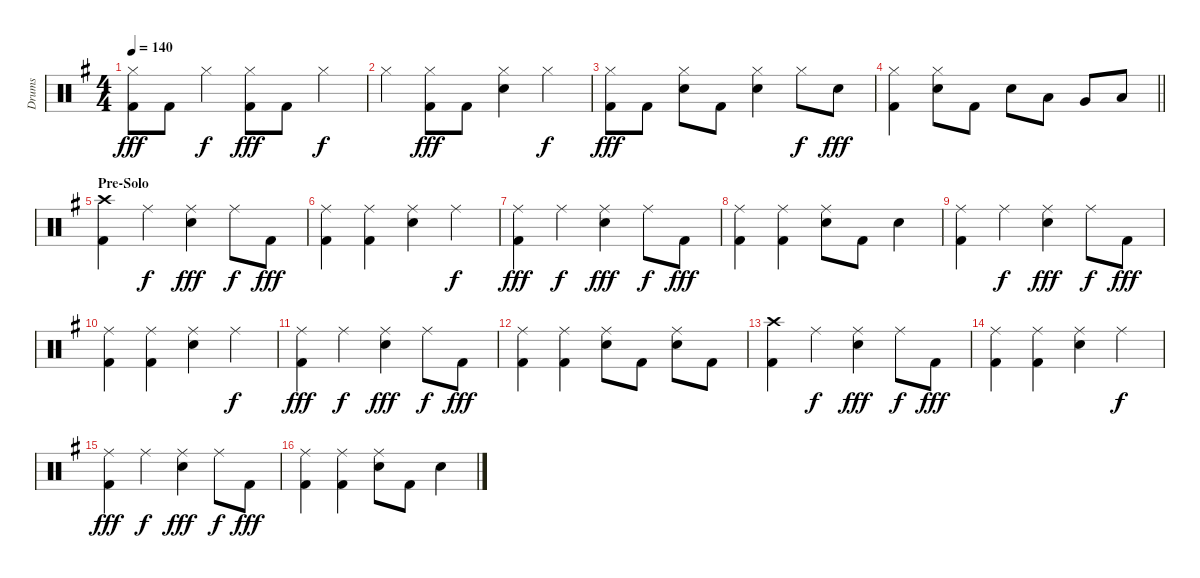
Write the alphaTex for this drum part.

\track ("Drums" "Drums") {instrument percussion}
\staff {score}
\articulation defaults
\ts (4 4)
\tempo 140
\clef neutral
\ks eminor
("Hi-Hat (closed)" "Kick (hit) 2").8{dy fff} "Kick (hit) 2".8 "Hi-Hat (closed)".4{dy f} ("Hi-Hat (closed)" "Kick (hit) 2").8{dy fff} "Kick (hit) 2".8 "Hi-Hat (closed)".4{dy f} |
"Hi-Hat (closed)".4 ("Hi-Hat (closed)" "Kick (hit) 2").8{dy fff} "Kick (hit) 2".8 ("Electric Snare (hit)" "Hi-Hat (closed)").4 "Hi-Hat (closed)".4{dy f} |
("Hi-Hat (closed)" "Kick (hit) 2").8{dy fff} "Kick (hit) 2".8 ("Electric Snare (hit)" "Hi-Hat (closed)").8 "Kick (hit) 2".8 ("Electric Snare (hit)" "Hi-Hat (closed)").4 "Hi-Hat (closed)".8{dy f} "Electric Snare (hit)".8{dy fff} |
\barLineRight lightlight
("Hi-Hat (closed)" "Kick (hit) 2").4 ("Electric Snare (hit)" "Hi-Hat (closed)").8 "Kick (hit) 2".8 "Electric Snare (hit)".8 "Low Tom (hit)".8 "Very Low Tom (hit)".8 "Low Floor Tom (hit)".8 |
\section ("" "Pre-Solo")
("Crash high (hit)" "Kick (hit) 2").4 "Ride (middle)".4{dy f} ("Electric Snare (hit)" "Ride (middle)").4{dy fff} "Ride (middle)".8{dy f} "Kick (hit) 2".8{dy fff} |
("Ride (middle)" "Kick (hit) 2").4 ("Ride (middle)" "Kick (hit) 2").4 ("Electric Snare (hit)" "Ride (middle)").4 "Ride (middle)".4{dy f} |
("Ride (middle)" "Kick (hit) 2").4{dy fff} "Ride (middle)".4{dy f} ("Electric Snare (hit)" "Ride (middle)").4{dy fff} "Ride (middle)".8{dy f} "Kick (hit) 2".8{dy fff} |
("Ride (middle)" "Kick (hit) 2").4 ("Ride (middle)" "Kick (hit) 2").4 ("Electric Snare (hit)" "Ride (middle)").8 "Kick (hit) 2".8 "Electric Snare (hit)".4 |
("Ride (middle)" "Kick (hit) 2").4 "Ride (middle)".4{dy f} ("Electric Snare (hit)" "Ride (middle)").4{dy fff} "Ride (middle)".8{dy f} "Kick (hit) 2".8{dy fff} |
("Ride (middle)" "Kick (hit) 2").4 ("Ride (middle)" "Kick (hit) 2").4 ("Electric Snare (hit)" "Ride (middle)").4 "Ride (middle)".4{dy f} |
("Ride (middle)" "Kick (hit) 2").4{dy fff} "Ride (middle)".4{dy f} ("Electric Snare (hit)" "Ride (middle)").4{dy fff} "Ride (middle)".8{dy f} "Kick (hit) 2".8{dy fff} |
("Ride (middle)" "Kick (hit) 2").4 ("Ride (middle)" "Kick (hit) 2").4 ("Electric Snare (hit)" "Ride (middle)").8 "Kick (hit) 2".8 ("Electric Snare (hit)" "Ride (middle)").8 "Kick (hit) 2".8 |
("Crash high (hit)" "Kick (hit) 2").4 "Ride (middle)".4{dy f} ("Electric Snare (hit)" "Ride (middle)").4{dy fff} "Ride (middle)".8{dy f} "Kick (hit) 2".8{dy fff} |
("Ride (middle)" "Kick (hit) 2").4 ("Ride (middle)" "Kick (hit) 2").4 ("Electric Snare (hit)" "Ride (middle)").4 "Ride (middle)".4{dy f} |
("Ride (middle)" "Kick (hit) 2").4{dy fff} "Ride (middle)".4{dy f} ("Electric Snare (hit)" "Ride (middle)").4{dy fff} "Ride (middle)".8{dy f} "Kick (hit) 2".8{dy fff} |
("Ride (middle)" "Kick (hit) 2").4 ("Ride (middle)" "Kick (hit) 2").4 ("Electric Snare (hit)" "Ride (middle)").8 "Kick (hit) 2".8 "Electric Snare (hit)".4
